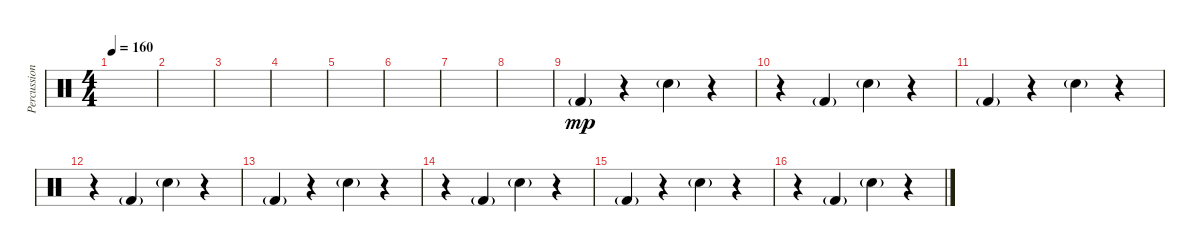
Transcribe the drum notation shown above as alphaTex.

\track ("Percussion" "Percussion") {instrument percussion}
\staff {score}
\articulation defaults
\ts (4 4)
\tempo 160
\clef neutral
\ks c
|
|
|
|
|
|
|
|
"Kick (hit) 2"{g}.4{dy mp} r.4 "Electric Snare (hit)"{g}.4 r.4 |
r.4 "Kick (hit) 2"{g}.4 "Electric Snare (hit)"{g}.4 r.4 |
"Kick (hit) 2"{g}.4 r.4 "Electric Snare (hit)"{g}.4 r.4 |
r.4 "Kick (hit) 2"{g}.4 "Electric Snare (hit)"{g}.4 r.4 |
"Kick (hit) 2"{g}.4 r.4 "Electric Snare (hit)"{g}.4 r.4 |
r.4 "Kick (hit) 2"{g}.4 "Electric Snare (hit)"{g}.4 r.4 |
"Kick (hit) 2"{g}.4 r.4 "Electric Snare (hit)"{g}.4 r.4 |
r.4 "Kick (hit) 2"{g}.4 "Electric Snare (hit)"{g}.4 r.4
